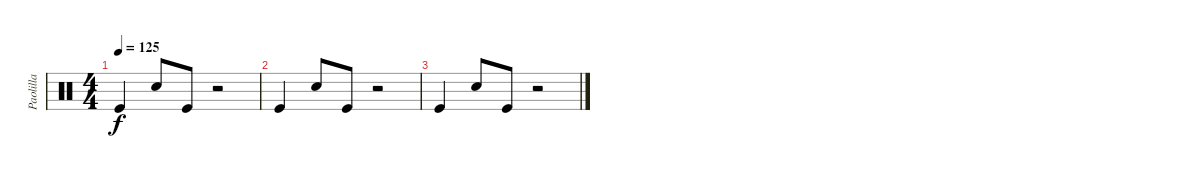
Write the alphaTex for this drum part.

\track ("Paolilla" "Paolilla") {instrument percussion}
\staff {score}
\articulation defaults
\ts (4 4)
\tempo 125
\clef neutral
\ks c "Kick (hit)".4{dy f} "Snare (hit) 2".8 "Kick (hit)".8
r.2 |
"Kick (hit)".4 "Snare (hit) 2".8 "Kick (hit)".8 r.2 |
"Kick (hit)".4 "Snare (hit) 2".8 "Kick (hit)".8 r.2
